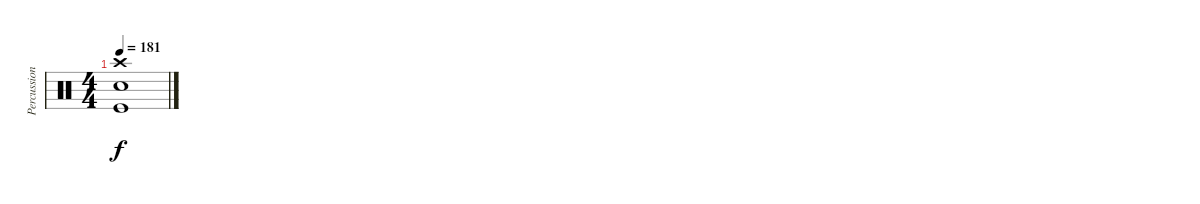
\track ("Percussion" "Percussion") {instrument percussion}
\staff {score}
\articulation defaults
\ts (4 4)
\tempo 181
\clef neutral
\ks c
("Crash high (hit)" "Electric Snare (hit)" "Kick (hit)").1{dy f}
